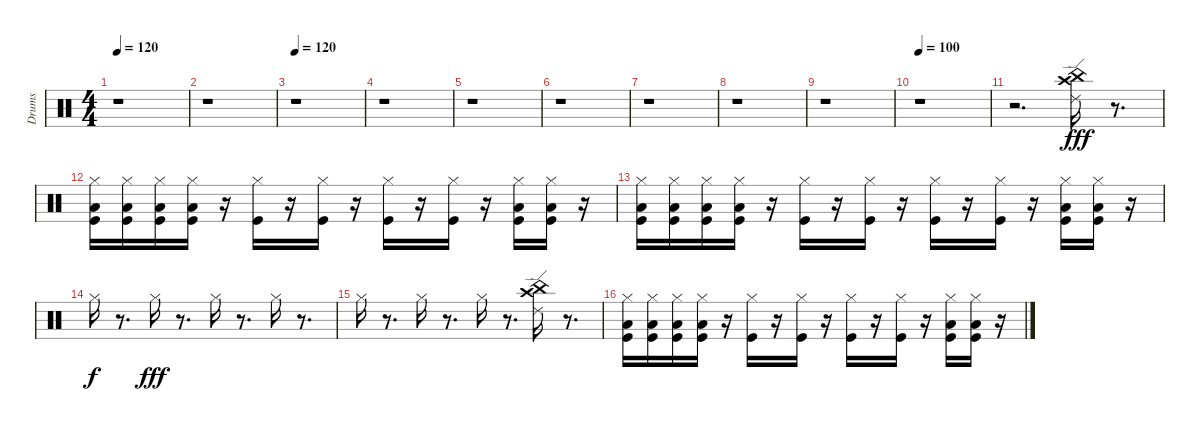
\track ("Drums" "Drums") {instrument percussion}
\staff {score}
\articulation defaults
\ts (4 4)
\tempo 120
\clef neutral
\ks c
r.1{dy fff} |
r.1 |
\tempo 120
r.1 |
r.1 |
r.1 |
r.1 |
r.1 |
r.1 |
r.1 |
\tempo 100
r.1 |
r.2{d} ("Ride (edge) 2" "Crash high (hit)" "China (hit)").16 r.8{d} |
("Hi-Hat (closed)" "Low Tom (hit)" "Kick (hit)").16 ("Hi-Hat (closed)" "Low Tom (hit)" "Kick (hit)").16 ("Hi-Hat (closed)" "Low Tom (hit)" "Kick (hit)").16 ("Hi-Hat (closed)" "Low Tom (hit)" "Kick (hit)").16 r.16 ("Hi-Hat (closed)" "Kick (hit)").16 r.16 ("Hi-Hat (closed)" "Kick (hit)").16 r.16 ("Hi-Hat (closed)" "Kick (hit)").16 r.16 ("Hi-Hat (closed)" "Kick (hit)").16 r.16 ("Hi-Hat (closed)" "Low Tom (hit)" "Kick (hit)").16 ("Hi-Hat (closed)" "Low Tom (hit)" "Kick (hit)").16 r.16 |
("Hi-Hat (closed)" "Low Tom (hit)" "Kick (hit)").16 ("Hi-Hat (closed)" "Low Tom (hit)" "Kick (hit)").16 ("Hi-Hat (closed)" "Low Tom (hit)" "Kick (hit)").16 ("Hi-Hat (closed)" "Low Tom (hit)" "Kick (hit)").16 r.16 ("Hi-Hat (closed)" "Kick (hit)").16 r.16 ("Hi-Hat (closed)" "Kick (hit)").16 r.16 ("Hi-Hat (closed)" "Kick (hit)").16 r.16 ("Hi-Hat (closed)" "Kick (hit)").16 r.16 ("Hi-Hat (closed)" "Low Tom (hit)" "Kick (hit)").16 ("Hi-Hat (closed)" "Low Tom (hit)" "Kick (hit)").16 r.16 |
"Hi-Hat (closed)".16{dy f} r.8{d} "Hi-Hat (closed)".16{dy fff} r.8{d} "Hi-Hat (closed)".16 r.8{d} "Hi-Hat (closed)".16 r.8{d} |
"Hi-Hat (closed)".16 r.8{d} "Hi-Hat (closed)".16 r.8{d} "Hi-Hat (closed)".16 r.8{d} ("Ride (edge) 2" "Crash high (hit)" "China (hit)").16 r.8{d} |
("Hi-Hat (closed)" "Low Tom (hit)" "Kick (hit)").16 ("Hi-Hat (closed)" "Low Tom (hit)" "Kick (hit)").16 ("Hi-Hat (closed)" "Low Tom (hit)" "Kick (hit)").16 ("Hi-Hat (closed)" "Low Tom (hit)" "Kick (hit)").16 r.16 ("Hi-Hat (closed)" "Kick (hit)").16 r.16 ("Hi-Hat (closed)" "Kick (hit)").16 r.16 ("Hi-Hat (closed)" "Kick (hit)").16 r.16 ("Hi-Hat (closed)" "Kick (hit)").16 r.16 ("Hi-Hat (closed)" "Low Tom (hit)" "Kick (hit)").16 ("Hi-Hat (closed)" "Low Tom (hit)" "Kick (hit)").16 r.16
